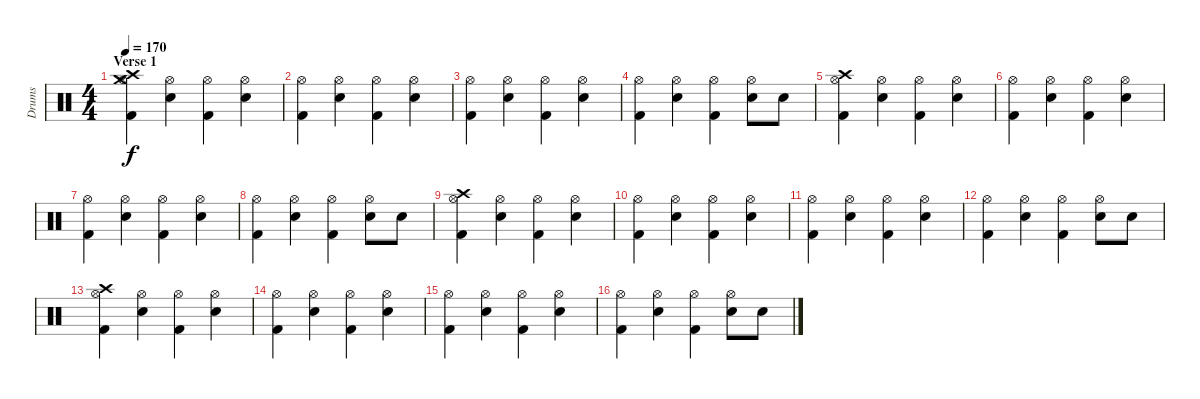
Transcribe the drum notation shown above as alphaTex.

\track ("Drums" "Drums") {instrument percussion}
\staff {score}
\articulation defaults
\ts (4 4)
\section ("" "Verse 1")
\tempo 170
\clef neutral
\ks c
("Crash medium (hit)" "Crash high (hit)" "Hi-Hat (open)" "Kick (hit) 2").4{dy f} ("Hi-Hat (open)" "Electric Snare (hit)").4 ("Hi-Hat (open)" "Kick (hit) 2").4 ("Hi-Hat (open)" "Electric Snare (hit)").4 |
("Hi-Hat (open)" "Kick (hit) 2").4 ("Hi-Hat (open)" "Electric Snare (hit)").4 ("Hi-Hat (open)" "Kick (hit) 2").4 ("Hi-Hat (open)" "Electric Snare (hit)").4 |
("Hi-Hat (open)" "Kick (hit) 2").4 ("Hi-Hat (open)" "Electric Snare (hit)").4 ("Hi-Hat (open)" "Kick (hit) 2").4 ("Hi-Hat (open)" "Electric Snare (hit)").4 |
("Hi-Hat (open)" "Kick (hit) 2").4 ("Hi-Hat (open)" "Electric Snare (hit)").4 ("Hi-Hat (open)" "Kick (hit) 2").4 ("Hi-Hat (open)" "Electric Snare (hit)").8 "Electric Snare (hit)".8 |
("Crash high (hit)" "Hi-Hat (open)" "Kick (hit) 2").4 ("Hi-Hat (open)" "Electric Snare (hit)").4 ("Hi-Hat (open)" "Kick (hit) 2").4 ("Hi-Hat (open)" "Electric Snare (hit)").4 |
("Hi-Hat (open)" "Kick (hit) 2").4 ("Hi-Hat (open)" "Electric Snare (hit)").4 ("Hi-Hat (open)" "Kick (hit) 2").4 ("Hi-Hat (open)" "Electric Snare (hit)").4 |
("Hi-Hat (open)" "Kick (hit) 2").4 ("Hi-Hat (open)" "Electric Snare (hit)").4 ("Hi-Hat (open)" "Kick (hit) 2").4 ("Hi-Hat (open)" "Electric Snare (hit)").4 |
("Hi-Hat (open)" "Kick (hit) 2").4 ("Hi-Hat (open)" "Electric Snare (hit)").4 ("Hi-Hat (open)" "Kick (hit) 2").4 ("Hi-Hat (open)" "Electric Snare (hit)").8 "Electric Snare (hit)".8 |
("Crash high (hit)" "Hi-Hat (open)" "Kick (hit) 2").4 ("Hi-Hat (open)" "Electric Snare (hit)").4 ("Hi-Hat (open)" "Kick (hit) 2").4 ("Hi-Hat (open)" "Electric Snare (hit)").4 |
("Hi-Hat (open)" "Kick (hit) 2").4 ("Hi-Hat (open)" "Electric Snare (hit)").4 ("Hi-Hat (open)" "Kick (hit) 2").4 ("Hi-Hat (open)" "Electric Snare (hit)").4 |
("Hi-Hat (open)" "Kick (hit) 2").4 ("Hi-Hat (open)" "Electric Snare (hit)").4 ("Hi-Hat (open)" "Kick (hit) 2").4 ("Hi-Hat (open)" "Electric Snare (hit)").4 |
("Hi-Hat (open)" "Kick (hit) 2").4 ("Hi-Hat (open)" "Electric Snare (hit)").4 ("Hi-Hat (open)" "Kick (hit) 2").4 ("Hi-Hat (open)" "Electric Snare (hit)").8 "Electric Snare (hit)".8 |
("Crash high (hit)" "Hi-Hat (open)" "Kick (hit) 2").4 ("Hi-Hat (open)" "Electric Snare (hit)").4 ("Hi-Hat (open)" "Kick (hit) 2").4 ("Hi-Hat (open)" "Electric Snare (hit)").4 |
("Hi-Hat (open)" "Kick (hit) 2").4 ("Hi-Hat (open)" "Electric Snare (hit)").4 ("Hi-Hat (open)" "Kick (hit) 2").4 ("Hi-Hat (open)" "Electric Snare (hit)").4 |
("Hi-Hat (open)" "Kick (hit) 2").4 ("Hi-Hat (open)" "Electric Snare (hit)").4 ("Hi-Hat (open)" "Kick (hit) 2").4 ("Hi-Hat (open)" "Electric Snare (hit)").4 |
("Hi-Hat (open)" "Kick (hit) 2").4 ("Hi-Hat (open)" "Electric Snare (hit)").4 ("Hi-Hat (open)" "Kick (hit) 2").4 ("Hi-Hat (open)" "Electric Snare (hit)").8 "Electric Snare (hit)".8
